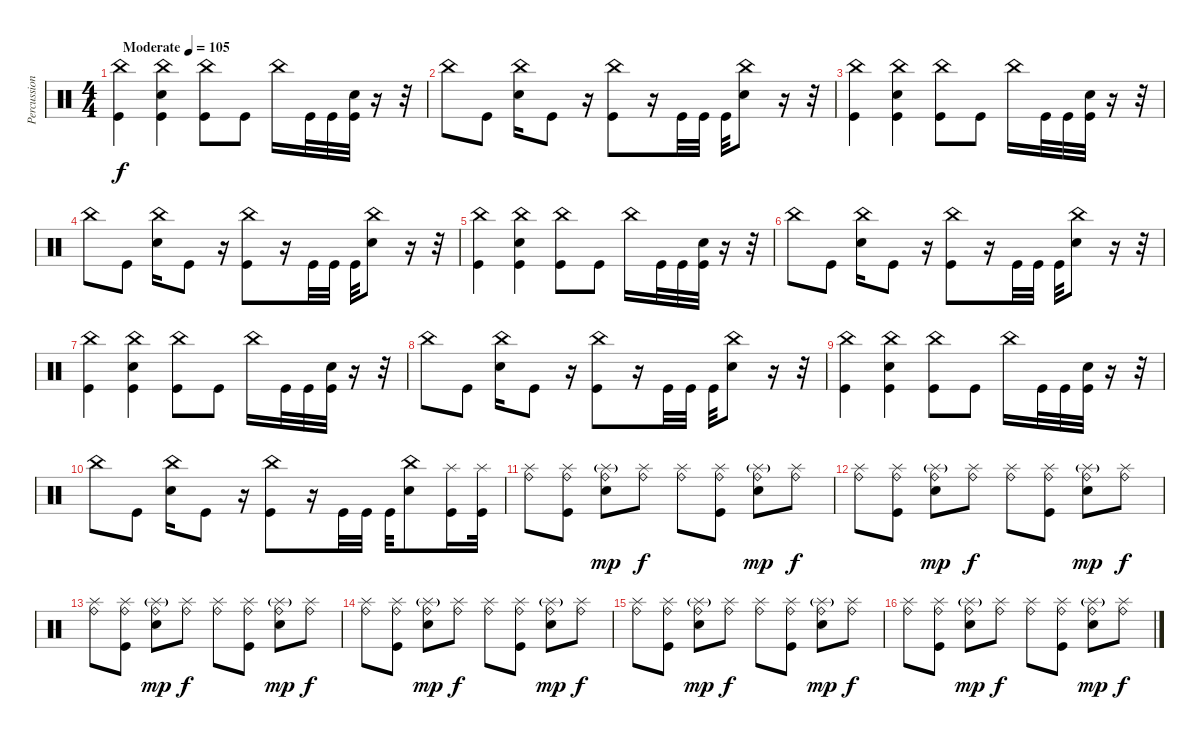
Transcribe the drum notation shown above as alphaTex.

\track ("Percussion" "Percussion") {instrument percussion}
\staff {score}
\articulation defaults
\ts (4 4)
\tempo (105 "Moderate")
\clef neutral
\ks c
("China (hit)" "Kick (hit)").4{dy f} ("Snare (hit) 2" "China (hit)" "Kick (hit)").4 ("China (hit)" "Kick (hit)").8 "Kick (hit)".8 "China (hit)".16 "Kick (hit)".32 "Kick (hit)".32 ("Snare (hit) 2" "Kick (hit)").32 r.16 r.32 |
"China (hit)".8 "Kick (hit)".8 ("Snare (hit) 2" "China (hit)").16 "Kick (hit)".8 r.16 ("China (hit)" "Kick (hit)").8 r.16 "Kick (hit)".32 "Kick (hit)".32 "Kick (hit)".32 ("Snare (hit) 2" "China (hit)").8 r.16 r.32 |
("China (hit)" "Kick (hit)").4 ("Snare (hit) 2" "China (hit)" "Kick (hit)").4 ("China (hit)" "Kick (hit)").8 "Kick (hit)".8 "China (hit)".16 "Kick (hit)".32 "Kick (hit)".32 ("Snare (hit) 2" "Kick (hit)").32 r.16 r.32 |
"China (hit)".8 "Kick (hit)".8 ("Snare (hit) 2" "China (hit)").16 "Kick (hit)".8 r.16 ("China (hit)" "Kick (hit)").8 r.16 "Kick (hit)".32 "Kick (hit)".32 "Kick (hit)".32 ("Snare (hit) 2" "China (hit)").8 r.16 r.32 |
("China (hit)" "Kick (hit)").4 ("Snare (hit) 2" "China (hit)" "Kick (hit)").4 ("China (hit)" "Kick (hit)").8 "Kick (hit)".8 "China (hit)".16 "Kick (hit)".32 "Kick (hit)".32 ("Snare (hit) 2" "Kick (hit)").32 r.16 r.32 |
"China (hit)".8 "Kick (hit)".8 ("Snare (hit) 2" "China (hit)").16 "Kick (hit)".8 r.16 ("China (hit)" "Kick (hit)").8 r.16 "Kick (hit)".32 "Kick (hit)".32 "Kick (hit)".32 ("Snare (hit) 2" "China (hit)").8 r.16 r.32 |
("China (hit)" "Kick (hit)").4 ("Snare (hit) 2" "China (hit)" "Kick (hit)").4 ("China (hit)" "Kick (hit)").8 "Kick (hit)".8 "China (hit)".16 "Kick (hit)".32 "Kick (hit)".32 ("Snare (hit) 2" "Kick (hit)").32 r.16 r.32 |
"China (hit)".8 "Kick (hit)".8 ("Snare (hit) 2" "China (hit)").16 "Kick (hit)".8 r.16 ("China (hit)" "Kick (hit)").8 r.16 "Kick (hit)".32 "Kick (hit)".32 "Kick (hit)".32 ("Snare (hit) 2" "China (hit)").8 r.16 r.32 |
("China (hit)" "Kick (hit)").4 ("Snare (hit) 2" "China (hit)" "Kick (hit)").4 ("China (hit)" "Kick (hit)").8 "Kick (hit)".8 "China (hit)".16 "Kick (hit)".32 "Kick (hit)".32 ("Snare (hit) 2" "Kick (hit)").32 r.16 r.32 |
"China (hit)".8 "Kick (hit)".8 ("Snare (hit) 2" "China (hit)").16 "Kick (hit)".8 r.16 ("China (hit)" "Kick (hit)").8 r.16 "Kick (hit)".32 "Kick (hit)".32 "Kick (hit)".32 ("Snare (hit) 2" "China (hit)").8 ("Splash (hit)" "Kick (hit)").16 ("Splash (hit)" "Kick (hit)").32 |
("Ride (bell)" "Splash (hit)").8 ("Kick (hit)" "Ride (bell)" "Splash (hit)").8 ("Snare (hit) 2" "Ride (bell)" "Splash (hit)"{g}).8{dy mp} ("Ride (bell)" "Splash (hit)").8{dy f} ("Ride (bell)" "Splash (hit)").8 ("Kick (hit)" "Ride (bell)" "Splash (hit)").8 ("Snare (hit) 2" "Ride (bell)" "Splash (hit)"{g}).8{dy mp} ("Ride (bell)" "Splash (hit)").8{dy f} |
("Ride (bell)" "Splash (hit)").8 ("Kick (hit)" "Ride (bell)" "Splash (hit)").8 ("Snare (hit) 2" "Ride (bell)" "Splash (hit)"{g}).8{dy mp} ("Ride (bell)" "Splash (hit)").8{dy f} ("Ride (bell)" "Splash (hit)").8 ("Kick (hit)" "Ride (bell)" "Splash (hit)").8 ("Snare (hit) 2" "Ride (bell)" "Splash (hit)"{g}).8{dy mp} ("Ride (bell)" "Splash (hit)").8{dy f} |
("Ride (bell)" "Splash (hit)").8 ("Kick (hit)" "Ride (bell)" "Splash (hit)").8 ("Snare (hit) 2" "Ride (bell)" "Splash (hit)"{g}).8{dy mp} ("Ride (bell)" "Splash (hit)").8{dy f} ("Ride (bell)" "Splash (hit)").8 ("Kick (hit)" "Ride (bell)" "Splash (hit)").8 ("Snare (hit) 2" "Ride (bell)" "Splash (hit)"{g}).8{dy mp} ("Ride (bell)" "Splash (hit)").8{dy f} |
("Ride (bell)" "Splash (hit)").8 ("Kick (hit)" "Ride (bell)" "Splash (hit)").8 ("Snare (hit) 2" "Ride (bell)" "Splash (hit)"{g}).8{dy mp} ("Ride (bell)" "Splash (hit)").8{dy f} ("Ride (bell)" "Splash (hit)").8 ("Kick (hit)" "Ride (bell)" "Splash (hit)").8 ("Snare (hit) 2" "Ride (bell)" "Splash (hit)"{g}).8{dy mp} ("Ride (bell)" "Splash (hit)").8{dy f} |
("Ride (bell)" "Splash (hit)").8 ("Kick (hit)" "Ride (bell)" "Splash (hit)").8 ("Snare (hit) 2" "Ride (bell)" "Splash (hit)"{g}).8{dy mp} ("Ride (bell)" "Splash (hit)").8{dy f} ("Ride (bell)" "Splash (hit)").8 ("Kick (hit)" "Ride (bell)" "Splash (hit)").8 ("Snare (hit) 2" "Ride (bell)" "Splash (hit)"{g}).8{dy mp} ("Ride (bell)" "Splash (hit)").8{dy f} |
("Ride (bell)" "Splash (hit)").8 ("Kick (hit)" "Ride (bell)" "Splash (hit)").8 ("Snare (hit) 2" "Ride (bell)" "Splash (hit)"{g}).8{dy mp} ("Ride (bell)" "Splash (hit)").8{dy f} ("Ride (bell)" "Splash (hit)").8 ("Kick (hit)" "Ride (bell)" "Splash (hit)").8 ("Snare (hit) 2" "Ride (bell)" "Splash (hit)"{g}).8{dy mp} ("Ride (bell)" "Splash (hit)").8{dy f}
